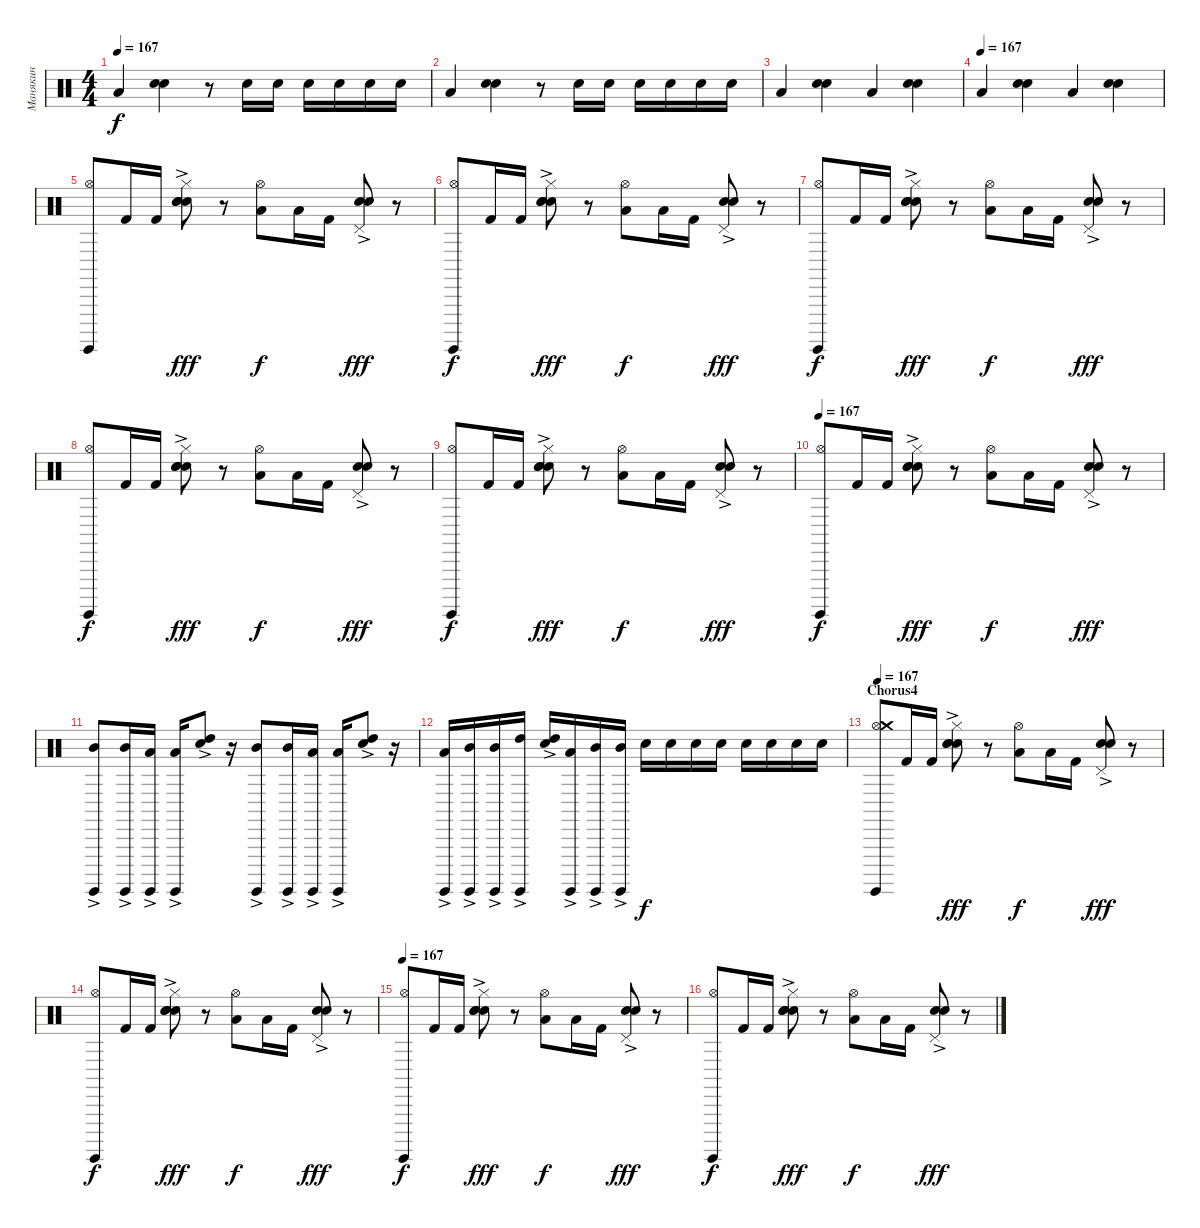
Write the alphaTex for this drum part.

\track ("Манякин" "Манякин") {instrument percussion}
\staff {score}
\articulation defaults
\ts (4 4)
\tempo 167
\clef neutral
\ks c "Low Tom (hit)".4{dy f}
("Electric Snare (hit)" "Snare (hit) 2").4 r.8 "Electric Snare (hit)".16 "Electric Snare (hit)".16 "Electric Snare (hit)".16 "Electric Snare (hit)".16 "Electric Snare (hit)".16 "Electric Snare (hit)".16 |
"Low Tom (hit)".4 ("Electric Snare (hit)" "Snare (hit) 2").4 r.8 "Electric Snare (hit)".16 "Electric Snare (hit)".16 "Electric Snare (hit)".16 "Electric Snare (hit)".16 "Electric Snare (hit)".16 "Electric Snare (hit)".16 |
"Low Tom (hit)".4 ("Electric Snare (hit)" "Snare (hit) 2").4 "Low Tom (hit)".4 ("Electric Snare (hit)" "Snare (hit) 2").4 |
\tempo (167)
"Low Tom (hit)".4 ("Electric Snare (hit)" "Snare (hit) 2").4 "Low Tom (hit)".4 ("Electric Snare (hit)" "Snare (hit) 2").4 |
("Surdo (hit)" "Hi-Hat (open)").8 "Kick (hit) 2".16 "Kick (hit) 2".16 ("Hi-Hat (closed)" "Electric Snare (hit)"{ac} "Snare (hit) 2" "Electric Snare (hit)").8{dy fff} r.8 ("Low Tom (hit)" "Hi-Hat (open)").8{dy f} "Low Tom (hit)".16 "Kick (hit) 2".16 ("Electric Snare (hit)"{ac} "Snare (hit) 2" "Pedal Hi-Hat (hit)").8{dy fff} r.8 |
("Surdo (hit)" "Hi-Hat (open)").8{dy f} "Kick (hit) 2".16 "Kick (hit) 2".16 ("Hi-Hat (closed)" "Electric Snare (hit)"{ac} "Snare (hit) 2" "Electric Snare (hit)").8{dy fff} r.8 ("Low Tom (hit)" "Hi-Hat (open)").8{dy f} "Low Tom (hit)".16 "Kick (hit) 2".16 ("Electric Snare (hit)"{ac} "Snare (hit) 2" "Pedal Hi-Hat (hit)").8{dy fff} r.8 |
("Surdo (hit)" "Hi-Hat (open)").8{dy f} "Kick (hit) 2".16 "Kick (hit) 2".16 ("Hi-Hat (closed)" "Electric Snare (hit)"{ac} "Snare (hit) 2" "Electric Snare (hit)").8{dy fff} r.8 ("Low Tom (hit)" "Hi-Hat (open)").8{dy f} "Low Tom (hit)".16 "Kick (hit) 2".16 ("Electric Snare (hit)"{ac} "Snare (hit) 2" "Pedal Hi-Hat (hit)").8{dy fff} r.8 |
("Surdo (hit)" "Hi-Hat (open)").8{dy f} "Kick (hit) 2".16 "Kick (hit) 2".16 ("Hi-Hat (closed)" "Electric Snare (hit)"{ac} "Snare (hit) 2" "Electric Snare (hit)").8{dy fff} r.8 ("Low Tom (hit)" "Hi-Hat (open)").8{dy f} "Low Tom (hit)".16 "Kick (hit) 2".16 ("Electric Snare (hit)"{ac} "Snare (hit) 2" "Pedal Hi-Hat (hit)").8{dy fff} r.8 |
("Surdo (hit)" "Hi-Hat (open)").8{dy f} "Kick (hit) 2".16 "Kick (hit) 2".16 ("Hi-Hat (closed)" "Electric Snare (hit)"{ac} "Snare (hit) 2" "Electric Snare (hit)").8{dy fff} r.8 ("Low Tom (hit)" "Hi-Hat (open)").8{dy f} "Low Tom (hit)".16 "Kick (hit) 2".16 ("Electric Snare (hit)"{ac} "Snare (hit) 2" "Pedal Hi-Hat (hit)").8{dy fff} r.8 |
\tempo 167
("Surdo (hit)" "Hi-Hat (open)").8{dy f} "Kick (hit) 2".16 "Kick (hit) 2".16 ("Hi-Hat (closed)" "Electric Snare (hit)"{ac} "Snare (hit) 2" "Electric Snare (hit)").8{dy fff} r.8 ("Low Tom (hit)" "Hi-Hat (open)").8{dy f} "Low Tom (hit)".16 "Kick (hit) 2".16 ("Electric Snare (hit)"{ac} "Snare (hit) 2" "Pedal Hi-Hat (hit)").8{dy fff} r.8 |
("Mid Tom (hit)"{ac} "Surdo (hit)").8 ("Surdo (hit)" "Mid Tom (hit)"{ac}).16 ("Surdo (hit)" "Low Tom (hit)"{ac}).16 ("Surdo (hit)" "Low Tom (hit)"{ac}).16 ("Electric Snare (hit)" "High Tom (hit)"{ac}).8 r.16 ("Mid Tom (hit)"{ac} "Surdo (hit)").8 ("Mid Tom (hit)"{ac} "Surdo (hit)").16 ("Low Tom (hit)"{ac} "Surdo (hit)").16 ("Low Tom (hit)"{ac} "Surdo (hit)").16 ("High Tom (hit)"{ac} "Electric Snare (hit)").8 r.16 |
("Low Tom (hit)"{ac} "Surdo (hit)").16 ("Surdo (hit)" "Mid Tom (hit)"{ac}).16 ("Surdo (hit)" "Mid Tom (hit)"{ac}).16 ("Surdo (hit)" "High Tom (hit)"{ac}).16 ("Electric Snare (hit)" "High Tom (hit)"{ac}).16 ("Low Tom (hit)"{ac} "Surdo (hit)").16 ("Mid Tom (hit)"{ac} "Surdo (hit)").16 ("Mid Tom (hit)"{ac} "Surdo (hit)").16 "Electric Snare (hit)".16{dy f} "Electric Snare (hit)".16 "Electric Snare (hit)".16 "Electric Snare (hit)".16 "Electric Snare (hit)".16 "Electric Snare (hit)".16 "Electric Snare (hit)".16 "Electric Snare (hit)".16 |
\section ("" "Chorus4")
\tempo 167
("Surdo (hit)" "Hi-Hat (open)" "Crash medium (hit)").8{volume 15} "Kick (hit) 2".16 "Kick (hit) 2".16 ("Hi-Hat (closed)" "Electric Snare (hit)"{ac} "Snare (hit) 2" "Electric Snare (hit)").8{dy fff} r.8 ("Low Tom (hit)" "Hi-Hat (open)").8{dy f} "Low Tom (hit)".16 "Kick (hit) 2".16 ("Electric Snare (hit)"{ac} "Snare (hit) 2" "Pedal Hi-Hat (hit)").8{dy fff} r.8 |
("Surdo (hit)" "Hi-Hat (open)").8{dy f} "Kick (hit) 2".16 "Kick (hit) 2".16 ("Hi-Hat (closed)" "Electric Snare (hit)"{ac} "Snare (hit) 2" "Electric Snare (hit)").8{dy fff} r.8 ("Low Tom (hit)" "Hi-Hat (open)").8{dy f} "Low Tom (hit)".16 "Kick (hit) 2".16 ("Electric Snare (hit)"{ac} "Snare (hit) 2" "Pedal Hi-Hat (hit)").8{dy fff} r.8 |
\tempo 167
("Surdo (hit)" "Hi-Hat (open)").8{dy f} "Kick (hit) 2".16 "Kick (hit) 2".16 ("Hi-Hat (closed)" "Electric Snare (hit)"{ac} "Snare (hit) 2" "Electric Snare (hit)").8{dy fff} r.8 ("Low Tom (hit)" "Hi-Hat (open)").8{dy f} "Low Tom (hit)".16 "Kick (hit) 2".16 ("Electric Snare (hit)"{ac} "Snare (hit) 2" "Pedal Hi-Hat (hit)").8{dy fff} r.8 |
("Surdo (hit)" "Hi-Hat (open)").8{dy f} "Kick (hit) 2".16 "Kick (hit) 2".16 ("Hi-Hat (closed)" "Electric Snare (hit)"{ac} "Snare (hit) 2" "Electric Snare (hit)").8{dy fff} r.8 ("Low Tom (hit)" "Hi-Hat (open)").8{dy f} "Low Tom (hit)".16 "Kick (hit) 2".16 ("Electric Snare (hit)"{ac} "Snare (hit) 2" "Pedal Hi-Hat (hit)").8{dy fff} r.8
